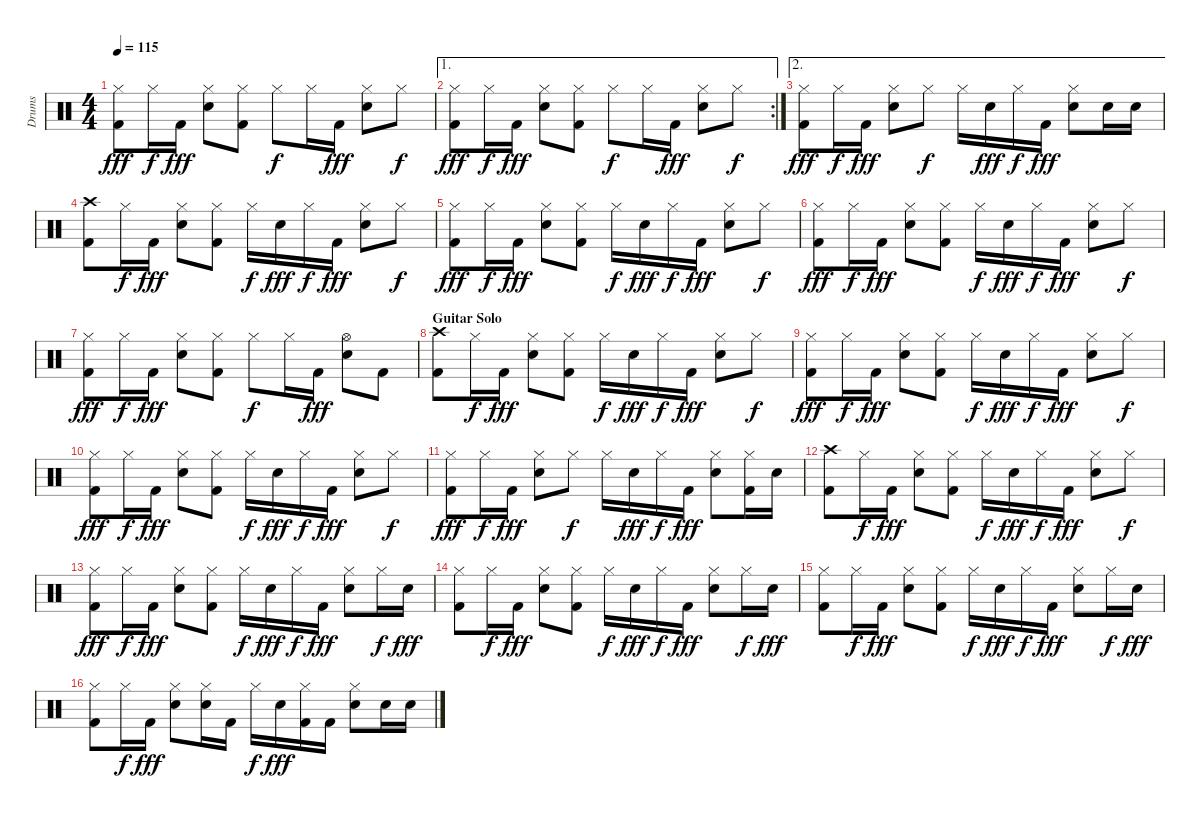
\track ("Drums" "Drums") {instrument percussion}
\staff {score}
\articulation defaults
\ts (4 4)
\tempo 115
\clef neutral
\ks c
("Hi-Hat (closed)" "Kick (hit) 2").8{dy fff} "Hi-Hat (closed)".16{dy f} "Kick (hit) 2".16{dy fff} ("Hi-Hat (closed)" "Electric Snare (hit)").8 ("Hi-Hat (closed)" "Kick (hit) 2").8 "Hi-Hat (closed)".8{dy f} "Hi-Hat (closed)".16 "Kick (hit) 2".16{dy fff} ("Hi-Hat (closed)" "Electric Snare (hit)").8 "Hi-Hat (closed)".8{dy f} |
\ae 1
\rc 2
("Hi-Hat (closed)" "Kick (hit) 2").8{dy fff} "Hi-Hat (closed)".16{dy f} "Kick (hit) 2".16{dy fff} ("Hi-Hat (closed)" "Electric Snare (hit)").8 ("Hi-Hat (closed)" "Kick (hit) 2").8 "Hi-Hat (closed)".8{dy f} "Hi-Hat (closed)".16 "Kick (hit) 2".16{dy fff} ("Hi-Hat (closed)" "Electric Snare (hit)").8 "Hi-Hat (closed)".8{dy f} |
\ae 2
("Hi-Hat (closed)" "Kick (hit) 2").8{dy fff} "Hi-Hat (closed)".16{dy f} "Kick (hit) 2".16{dy fff} ("Hi-Hat (closed)" "Electric Snare (hit)").8 "Hi-Hat (closed)".8{dy f} "Hi-Hat (closed)".16 "Electric Snare (hit)".16{dy fff} "Hi-Hat (closed)".16{dy f} "Kick (hit) 2".16{dy fff} ("Hi-Hat (closed)" "Electric Snare (hit)").8 "Electric Snare (hit)".16 "Electric Snare (hit)".16 |
("Crash high (hit)" "Kick (hit) 2").8 "Hi-Hat (closed)".16{dy f} "Kick (hit) 2".16{dy fff} ("Hi-Hat (closed)" "Electric Snare (hit)").8 ("Hi-Hat (closed)" "Kick (hit) 2").8 "Hi-Hat (closed)".16{dy f} "Electric Snare (hit)".16{dy fff} "Hi-Hat (closed)".16{dy f} "Kick (hit) 2".16{dy fff} ("Hi-Hat (closed)" "Electric Snare (hit)").8 "Hi-Hat (closed)".8{dy f} |
("Hi-Hat (closed)" "Kick (hit) 2").8{dy fff} "Hi-Hat (closed)".16{dy f} "Kick (hit) 2".16{dy fff} ("Hi-Hat (closed)" "Electric Snare (hit)").8 ("Hi-Hat (closed)" "Kick (hit) 2").8 "Hi-Hat (closed)".16{dy f} "Electric Snare (hit)".16{dy fff} "Hi-Hat (closed)".16{dy f} "Kick (hit) 2".16{dy fff} ("Hi-Hat (closed)" "Electric Snare (hit)").8 "Hi-Hat (closed)".8{dy f} |
("Hi-Hat (closed)" "Kick (hit) 2").8{dy fff} "Hi-Hat (closed)".16{dy f} "Kick (hit) 2".16{dy fff} ("Hi-Hat (closed)" "Electric Snare (hit)").8 ("Hi-Hat (closed)" "Kick (hit) 2").8 "Hi-Hat (closed)".16{dy f} "Electric Snare (hit)".16{dy fff} "Hi-Hat (closed)".16{dy f} "Kick (hit) 2".16{dy fff} ("Hi-Hat (closed)" "Electric Snare (hit)").8 "Hi-Hat (closed)".8{dy f} |
("Hi-Hat (closed)" "Kick (hit) 2").8{dy fff} "Hi-Hat (closed)".16{dy f} "Kick (hit) 2".16{dy fff} ("Hi-Hat (closed)" "Electric Snare (hit)").8 ("Hi-Hat (closed)" "Kick (hit) 2").8 "Hi-Hat (closed)".8{dy f} "Hi-Hat (closed)".16 "Kick (hit) 2".16{dy fff} ("Hi-Hat (open)" "Electric Snare (hit)").8 "Kick (hit) 2".8 |
\section ("" "Guitar Solo")
("Crash high (hit)" "Kick (hit) 2").8 "Hi-Hat (closed)".16{dy f} "Kick (hit) 2".16{dy fff} ("Hi-Hat (closed)" "Electric Snare (hit)").8 ("Hi-Hat (closed)" "Kick (hit) 2").8 "Hi-Hat (closed)".16{dy f} "Electric Snare (hit)".16{dy fff} "Hi-Hat (closed)".16{dy f} "Kick (hit) 2".16{dy fff} ("Hi-Hat (closed)" "Electric Snare (hit)").8 "Hi-Hat (closed)".8{dy f} |
("Hi-Hat (closed)" "Kick (hit) 2").8{dy fff} "Hi-Hat (closed)".16{dy f} "Kick (hit) 2".16{dy fff} ("Hi-Hat (closed)" "Electric Snare (hit)").8 ("Hi-Hat (closed)" "Kick (hit) 2").8 "Hi-Hat (closed)".16{dy f} "Electric Snare (hit)".16{dy fff} "Hi-Hat (closed)".16{dy f} "Kick (hit) 2".16{dy fff} ("Hi-Hat (closed)" "Electric Snare (hit)").8 "Hi-Hat (closed)".8{dy f} |
("Hi-Hat (closed)" "Kick (hit) 2").8{dy fff} "Hi-Hat (closed)".16{dy f} "Kick (hit) 2".16{dy fff} ("Hi-Hat (closed)" "Electric Snare (hit)").8 ("Hi-Hat (closed)" "Kick (hit) 2").8 "Hi-Hat (closed)".16{dy f} "Electric Snare (hit)".16{dy fff} "Hi-Hat (closed)".16{dy f} "Kick (hit) 2".16{dy fff} ("Hi-Hat (closed)" "Electric Snare (hit)").8 "Hi-Hat (closed)".8{dy f} |
("Hi-Hat (closed)" "Kick (hit) 2").8{dy fff} "Hi-Hat (closed)".16{dy f} "Kick (hit) 2".16{dy fff} ("Hi-Hat (closed)" "Electric Snare (hit)").8 "Hi-Hat (closed)".8{dy f} "Hi-Hat (closed)".16 "Electric Snare (hit)".16{dy fff} "Hi-Hat (closed)".16{dy f} "Kick (hit) 2".16{dy fff} ("Hi-Hat (closed)" "Electric Snare (hit)").8 ("Hi-Hat (closed)" "Kick (hit) 2").16 "Electric Snare (hit)".16 |
("Crash high (hit)" "Kick (hit) 2").8 "Hi-Hat (closed)".16{dy f} "Kick (hit) 2".16{dy fff} ("Hi-Hat (closed)" "Electric Snare (hit)").8 ("Hi-Hat (closed)" "Kick (hit) 2").8 "Hi-Hat (closed)".16{dy f} "Electric Snare (hit)".16{dy fff} "Hi-Hat (closed)".16{dy f} "Kick (hit) 2".16{dy fff} ("Hi-Hat (closed)" "Electric Snare (hit)").8 "Hi-Hat (closed)".8{dy f} |
("Hi-Hat (closed)" "Kick (hit) 2").8{dy fff} "Hi-Hat (closed)".16{dy f} "Kick (hit) 2".16{dy fff} ("Hi-Hat (closed)" "Electric Snare (hit)").8 ("Hi-Hat (closed)" "Kick (hit) 2").8 "Hi-Hat (closed)".16{dy f} "Electric Snare (hit)".16{dy fff} "Hi-Hat (closed)".16{dy f} "Kick (hit) 2".16{dy fff} ("Hi-Hat (closed)" "Electric Snare (hit)").8 "Hi-Hat (closed)".16{dy f} "Electric Snare (hit)".16{dy fff} |
("Hi-Hat (closed)" "Kick (hit) 2").8 "Hi-Hat (closed)".16{dy f} "Kick (hit) 2".16{dy fff} ("Hi-Hat (closed)" "Electric Snare (hit)").8 ("Hi-Hat (closed)" "Kick (hit) 2").8 "Hi-Hat (closed)".16{dy f} "Electric Snare (hit)".16{dy fff} "Hi-Hat (closed)".16{dy f} "Kick (hit) 2".16{dy fff} ("Hi-Hat (closed)" "Electric Snare (hit)").8 "Hi-Hat (closed)".16{dy f} "Electric Snare (hit)".16{dy fff} |
("Hi-Hat (closed)" "Kick (hit) 2").8 "Hi-Hat (closed)".16{dy f} "Kick (hit) 2".16{dy fff} ("Hi-Hat (closed)" "Electric Snare (hit)").8 ("Hi-Hat (closed)" "Kick (hit) 2").8 "Hi-Hat (closed)".16{dy f} "Electric Snare (hit)".16{dy fff} "Hi-Hat (closed)".16{dy f} "Kick (hit) 2".16{dy fff} ("Hi-Hat (closed)" "Electric Snare (hit)").8 "Hi-Hat (closed)".16{dy f} "Electric Snare (hit)".16{dy fff} |
("Hi-Hat (closed)" "Kick (hit) 2").8 "Hi-Hat (closed)".16{dy f} "Kick (hit) 2".16{dy fff} ("Hi-Hat (closed)" "Electric Snare (hit)").8 ("Hi-Hat (closed)" "Electric Snare (hit)").16 "Kick (hit) 2".16 "Hi-Hat (closed)".16{dy f} "Electric Snare (hit)".16{dy fff} ("Hi-Hat (closed)" "Kick (hit) 2").16 "Kick (hit) 2".16 ("Hi-Hat (closed)" "Electric Snare (hit)").8 "Electric Snare (hit)".16 "Electric Snare (hit)".16
